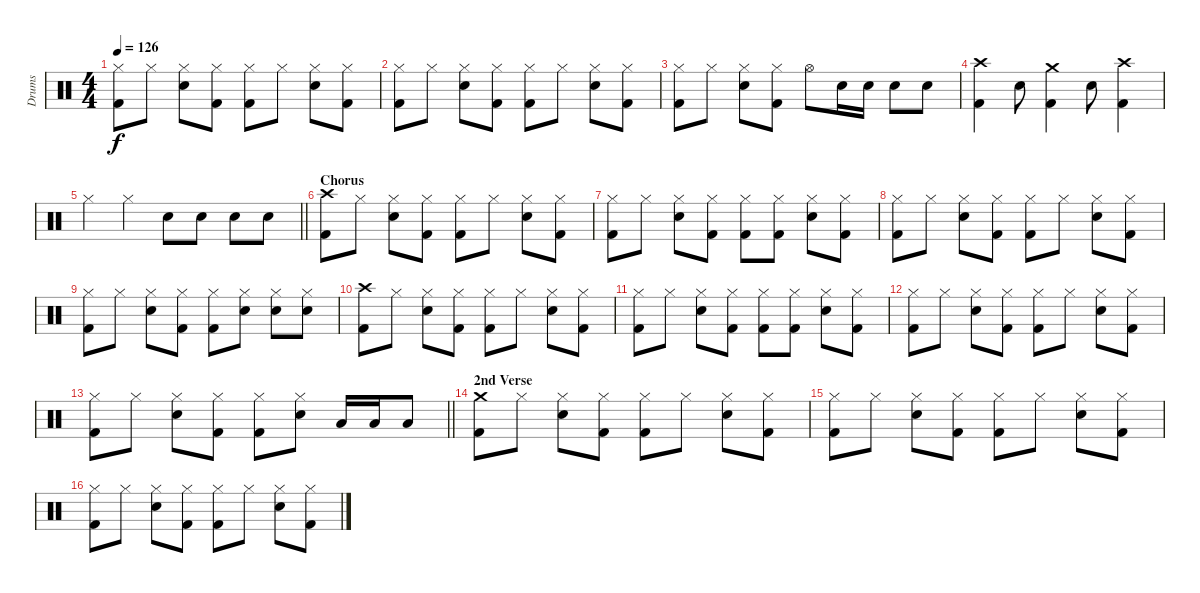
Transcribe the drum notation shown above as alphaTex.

\track ("Drums" "Drums") {instrument percussion}
\staff {score}
\articulation defaults
\ts (4 4)
\tempo 126
\clef neutral
\ks c
("Hi-Hat (closed)" "Kick (hit) 2").8{dy f} "Hi-Hat (closed)".8 ("Hi-Hat (closed)" "Snare (hit) 2").8 ("Hi-Hat (closed)" "Kick (hit) 2").8 ("Hi-Hat (closed)" "Kick (hit) 2").8 "Hi-Hat (closed)".8 ("Hi-Hat (closed)" "Snare (hit) 2").8 ("Hi-Hat (closed)" "Kick (hit) 2").8 |
("Hi-Hat (closed)" "Kick (hit) 2").8 "Hi-Hat (closed)".8 ("Hi-Hat (closed)" "Snare (hit) 2").8 ("Hi-Hat (closed)" "Kick (hit) 2").8 ("Hi-Hat (closed)" "Kick (hit) 2").8 "Hi-Hat (closed)".8 ("Hi-Hat (closed)" "Snare (hit) 2").8 ("Hi-Hat (closed)" "Kick (hit) 2").8 |
("Hi-Hat (closed)" "Kick (hit) 2").8 "Hi-Hat (closed)".8 ("Hi-Hat (closed)" "Snare (hit) 2").8 ("Hi-Hat (closed)" "Kick (hit) 2").8 "Hi-Hat (open)".8 "Snare (hit) 2".16 "Snare (hit) 2".16 "Snare (hit) 2".8 "Snare (hit) 2".8 |
("Crash high (hit)" "Kick (hit) 2").4 "Snare (hit) 2".8 ("Crash medium (hit)" "Kick (hit) 2").4 "Snare (hit) 2".8 ("Crash high (hit)" "Kick (hit) 2").4 |
\barLineRight lightlight "Hi-Hat (closed)".4 "Hi-Hat (closed)".4 "Snare (hit) 2".8 "Snare (hit) 2".8 "Snare (hit) 2".8 "Snare (hit) 2".8
|
\section ("" "Chorus")
("Crash high (hit)" "Kick (hit) 2").8 "Hi-Hat (closed)".8 ("Hi-Hat (closed)" "Snare (hit) 2").8 ("Hi-Hat (closed)" "Kick (hit) 2").8 ("Hi-Hat (closed)" "Kick (hit) 2").8 "Hi-Hat (closed)".8 ("Hi-Hat (closed)" "Snare (hit) 2").8 ("Hi-Hat (closed)" "Kick (hit) 2").8 |
("Hi-Hat (closed)" "Kick (hit) 2").8 "Hi-Hat (closed)".8 ("Hi-Hat (closed)" "Snare (hit) 2").8 ("Hi-Hat (closed)" "Kick (hit) 2").8 ("Hi-Hat (closed)" "Kick (hit) 2").8 ("Hi-Hat (closed)" "Kick (hit) 2").8 ("Hi-Hat (closed)" "Snare (hit) 2").8 ("Hi-Hat (closed)" "Kick (hit) 2").8 |
("Hi-Hat (closed)" "Kick (hit) 2").8 "Hi-Hat (closed)".8 ("Hi-Hat (closed)" "Snare (hit) 2").8 ("Hi-Hat (closed)" "Kick (hit) 2").8 ("Hi-Hat (closed)" "Kick (hit) 2").8 "Hi-Hat (closed)".8 ("Hi-Hat (closed)" "Snare (hit) 2").8 ("Hi-Hat (closed)" "Kick (hit) 2").8 |
("Hi-Hat (closed)" "Kick (hit) 2").8 "Hi-Hat (closed)".8 ("Hi-Hat (closed)" "Snare (hit) 2").8 ("Hi-Hat (closed)" "Kick (hit) 2").8 ("Hi-Hat (closed)" "Kick (hit) 2").8 ("Hi-Hat (closed)" "Snare (hit) 2").8 ("Hi-Hat (closed)" "Snare (hit) 2").8 ("Hi-Hat (closed)" "Snare (hit) 2").8 |
("Crash high (hit)" "Kick (hit) 2").8 "Hi-Hat (closed)".8 ("Hi-Hat (closed)" "Snare (hit) 2").8 ("Hi-Hat (closed)" "Kick (hit) 2").8 ("Hi-Hat (closed)" "Kick (hit) 2").8 "Hi-Hat (closed)".8 ("Hi-Hat (closed)" "Snare (hit) 2").8 ("Hi-Hat (closed)" "Kick (hit) 2").8 |
("Hi-Hat (closed)" "Kick (hit) 2").8 "Hi-Hat (closed)".8 ("Hi-Hat (closed)" "Snare (hit) 2").8 ("Hi-Hat (closed)" "Kick (hit) 2").8 ("Hi-Hat (closed)" "Kick (hit) 2").8 ("Hi-Hat (closed)" "Kick (hit) 2").8 ("Hi-Hat (closed)" "Snare (hit) 2").8 ("Hi-Hat (closed)" "Kick (hit) 2").8 |
("Hi-Hat (closed)" "Kick (hit) 2").8 "Hi-Hat (closed)".8 ("Hi-Hat (closed)" "Snare (hit) 2").8 ("Hi-Hat (closed)" "Kick (hit) 2").8 ("Hi-Hat (closed)" "Kick (hit) 2").8 "Hi-Hat (closed)".8 ("Hi-Hat (closed)" "Snare (hit) 2").8 ("Hi-Hat (closed)" "Kick (hit) 2").8 |
\barLineRight lightlight
("Hi-Hat (closed)" "Kick (hit) 2").8 "Hi-Hat (closed)".8 ("Hi-Hat (closed)" "Snare (hit) 2").8 ("Hi-Hat (closed)" "Kick (hit) 2").8 ("Hi-Hat (closed)" "Kick (hit) 2").8 ("Hi-Hat (closed)" "Snare (hit) 2").8 "Low Tom (hit)".16 "Low Tom (hit)".16 "Low Tom (hit)".8 |
\section ("" "2nd Verse")
("Crash medium (hit)" "Kick (hit) 2").8 "Hi-Hat (closed)".8 ("Hi-Hat (closed)" "Snare (hit) 2").8 ("Hi-Hat (closed)" "Kick (hit) 2").8 ("Hi-Hat (closed)" "Kick (hit) 2").8 "Hi-Hat (closed)".8 ("Hi-Hat (closed)" "Snare (hit) 2").8 ("Hi-Hat (closed)" "Kick (hit) 2").8 |
("Hi-Hat (closed)" "Kick (hit) 2").8 "Hi-Hat (closed)".8 ("Hi-Hat (closed)" "Snare (hit) 2").8 ("Hi-Hat (closed)" "Kick (hit) 2").8 ("Hi-Hat (closed)" "Kick (hit) 2").8 "Hi-Hat (closed)".8 ("Hi-Hat (closed)" "Snare (hit) 2").8 ("Hi-Hat (closed)" "Kick (hit) 2").8 |
("Hi-Hat (closed)" "Kick (hit) 2").8 "Hi-Hat (closed)".8 ("Hi-Hat (closed)" "Snare (hit) 2").8 ("Hi-Hat (closed)" "Kick (hit) 2").8 ("Hi-Hat (closed)" "Kick (hit) 2").8 "Hi-Hat (closed)".8 ("Hi-Hat (closed)" "Snare (hit) 2").8 ("Hi-Hat (closed)" "Kick (hit) 2").8
